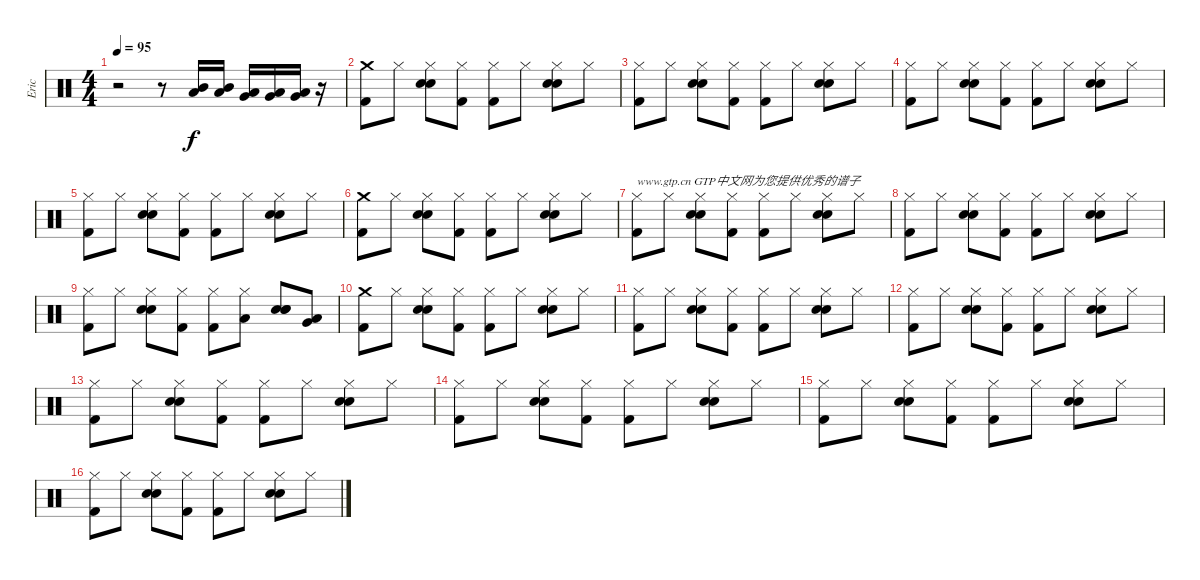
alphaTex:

\track ("Eric" "Eric") {instrument percussion}
\staff {score}
\articulation defaults
\ts (4 4)
\tempo 95
\clef neutral
\ks c
r.2{dy f} r.8 ("Mid Tom (hit)" "Low Tom (hit)").16 ("Mid Tom (hit)" "Low Tom (hit)").16 ("Low Tom (hit)" "Very Low Tom (hit)").16 ("Low Tom (hit)" "Very Low Tom (hit)").16 ("Very Low Tom (hit)" "Low Floor Tom (hit)").16 r.16 |
("Crash medium (hit)" "Kick (hit) 2").8 "Hi-Hat (closed)".8 ("Hi-Hat (closed)" "Electric Snare (hit)" "Snare (hit) 2").8 ("Hi-Hat (closed)" "Kick (hit) 2").8 ("Hi-Hat (closed)" "Kick (hit) 2").8 "Hi-Hat (closed)".8 ("Hi-Hat (closed)" "Electric Snare (hit)" "Snare (hit) 2").8 "Hi-Hat (closed)".8 |
("Hi-Hat (closed)" "Kick (hit) 2").8 "Hi-Hat (closed)".8 ("Hi-Hat (closed)" "Electric Snare (hit)" "Snare (hit) 2").8 ("Hi-Hat (closed)" "Kick (hit) 2").8 ("Hi-Hat (closed)" "Kick (hit) 2").8 "Hi-Hat (closed)".8 ("Hi-Hat (closed)" "Electric Snare (hit)" "Snare (hit) 2").8 "Hi-Hat (closed)".8 |
("Hi-Hat (closed)" "Kick (hit) 2").8 "Hi-Hat (closed)".8 ("Hi-Hat (closed)" "Electric Snare (hit)" "Snare (hit) 2").8 ("Hi-Hat (closed)" "Kick (hit) 2").8 ("Hi-Hat (closed)" "Kick (hit) 2").8 "Hi-Hat (closed)".8 ("Hi-Hat (closed)" "Electric Snare (hit)" "Snare (hit) 2").8 "Hi-Hat (closed)".8 |
("Hi-Hat (closed)" "Kick (hit) 2").8 "Hi-Hat (closed)".8 ("Hi-Hat (closed)" "Electric Snare (hit)" "Snare (hit) 2").8 ("Hi-Hat (closed)" "Kick (hit) 2").8 ("Hi-Hat (closed)" "Kick (hit) 2").8 "Hi-Hat (closed)".8 ("Hi-Hat (closed)" "Electric Snare (hit)" "Snare (hit) 2").8 "Hi-Hat (closed)".8 |
("Crash medium (hit)" "Kick (hit) 2").8 "Hi-Hat (closed)".8 ("Hi-Hat (closed)" "Electric Snare (hit)" "Snare (hit) 2").8 ("Hi-Hat (closed)" "Kick (hit) 2").8 ("Hi-Hat (closed)" "Kick (hit) 2").8 "Hi-Hat (closed)".8 ("Hi-Hat (closed)" "Electric Snare (hit)" "Snare (hit) 2").8 "Hi-Hat (closed)".8 |
("Hi-Hat (closed)" "Kick (hit) 2").8{txt "www.gtp.cn GTP中文网为您提供优秀的谱子"} "Hi-Hat (closed)".8 ("Hi-Hat (closed)" "Electric Snare (hit)" "Snare (hit) 2").8 ("Hi-Hat (closed)" "Kick (hit) 2").8 ("Hi-Hat (closed)" "Kick (hit) 2").8 "Hi-Hat (closed)".8 ("Hi-Hat (closed)" "Electric Snare (hit)" "Snare (hit) 2").8 "Hi-Hat (closed)".8 |
("Hi-Hat (closed)" "Kick (hit) 2").8 "Hi-Hat (closed)".8 ("Hi-Hat (closed)" "Electric Snare (hit)" "Snare (hit) 2").8 ("Hi-Hat (closed)" "Kick (hit) 2").8 ("Hi-Hat (closed)" "Kick (hit) 2").8 "Hi-Hat (closed)".8 ("Hi-Hat (closed)" "Electric Snare (hit)" "Snare (hit) 2").8 "Hi-Hat (closed)".8 |
("Hi-Hat (closed)" "Kick (hit) 2").8 "Hi-Hat (closed)".8 ("Hi-Hat (closed)" "Electric Snare (hit)" "Snare (hit) 2").8 ("Hi-Hat (closed)" "Kick (hit) 2").8 ("Hi-Hat (closed)" "Kick (hit) 2").8 ("Hi-Hat (closed)" "Low Tom (hit)").8 ("Snare (hit) 2" "Electric Snare (hit)" "Snare (hit) 2").8 ("Very Low Tom (hit)" "Low Floor Tom (hit)").8 |
("Crash medium (hit)" "Kick (hit) 2").8 "Hi-Hat (closed)".8 ("Hi-Hat (closed)" "Electric Snare (hit)" "Snare (hit) 2").8 ("Hi-Hat (closed)" "Kick (hit) 2").8 ("Hi-Hat (closed)" "Kick (hit) 2").8 "Hi-Hat (closed)".8 ("Hi-Hat (closed)" "Electric Snare (hit)" "Snare (hit) 2").8 "Hi-Hat (closed)".8 |
("Hi-Hat (closed)" "Kick (hit) 2").8 "Hi-Hat (closed)".8 ("Hi-Hat (closed)" "Electric Snare (hit)" "Snare (hit) 2").8 ("Hi-Hat (closed)" "Kick (hit) 2").8 ("Hi-Hat (closed)" "Kick (hit) 2").8 "Hi-Hat (closed)".8 ("Hi-Hat (closed)" "Electric Snare (hit)" "Snare (hit) 2").8 "Hi-Hat (closed)".8 |
("Hi-Hat (closed)" "Kick (hit) 2").8 "Hi-Hat (closed)".8 ("Hi-Hat (closed)" "Electric Snare (hit)" "Snare (hit) 2").8 ("Hi-Hat (closed)" "Kick (hit) 2").8 ("Hi-Hat (closed)" "Kick (hit) 2").8 "Hi-Hat (closed)".8 ("Hi-Hat (closed)" "Electric Snare (hit)" "Snare (hit) 2").8 "Hi-Hat (closed)".8 |
("Hi-Hat (closed)" "Kick (hit) 2").8 "Hi-Hat (closed)".8 ("Hi-Hat (closed)" "Electric Snare (hit)" "Snare (hit) 2").8 ("Hi-Hat (closed)" "Kick (hit) 2").8 ("Hi-Hat (closed)" "Kick (hit) 2").8 "Hi-Hat (closed)".8 ("Hi-Hat (closed)" "Electric Snare (hit)" "Snare (hit) 2").8 "Hi-Hat (closed)".8 |
("Hi-Hat (closed)" "Kick (hit) 2").8 "Hi-Hat (closed)".8 ("Hi-Hat (closed)" "Electric Snare (hit)" "Snare (hit) 2").8 ("Hi-Hat (closed)" "Kick (hit) 2").8 ("Hi-Hat (closed)" "Kick (hit) 2").8 "Hi-Hat (closed)".8 ("Hi-Hat (closed)" "Electric Snare (hit)" "Snare (hit) 2").8 "Hi-Hat (closed)".8 |
("Hi-Hat (closed)" "Kick (hit) 2").8 "Hi-Hat (closed)".8 ("Hi-Hat (closed)" "Electric Snare (hit)" "Snare (hit) 2").8 ("Hi-Hat (closed)" "Kick (hit) 2").8 ("Hi-Hat (closed)" "Kick (hit) 2").8 "Hi-Hat (closed)".8 ("Hi-Hat (closed)" "Electric Snare (hit)" "Snare (hit) 2").8 "Hi-Hat (closed)".8 |
("Hi-Hat (closed)" "Kick (hit) 2").8 "Hi-Hat (closed)".8 ("Hi-Hat (closed)" "Electric Snare (hit)" "Snare (hit) 2").8 ("Hi-Hat (closed)" "Kick (hit) 2").8 ("Hi-Hat (closed)" "Kick (hit) 2").8 "Hi-Hat (closed)".8 ("Hi-Hat (closed)" "Electric Snare (hit)" "Snare (hit) 2").8 "Hi-Hat (closed)".8
